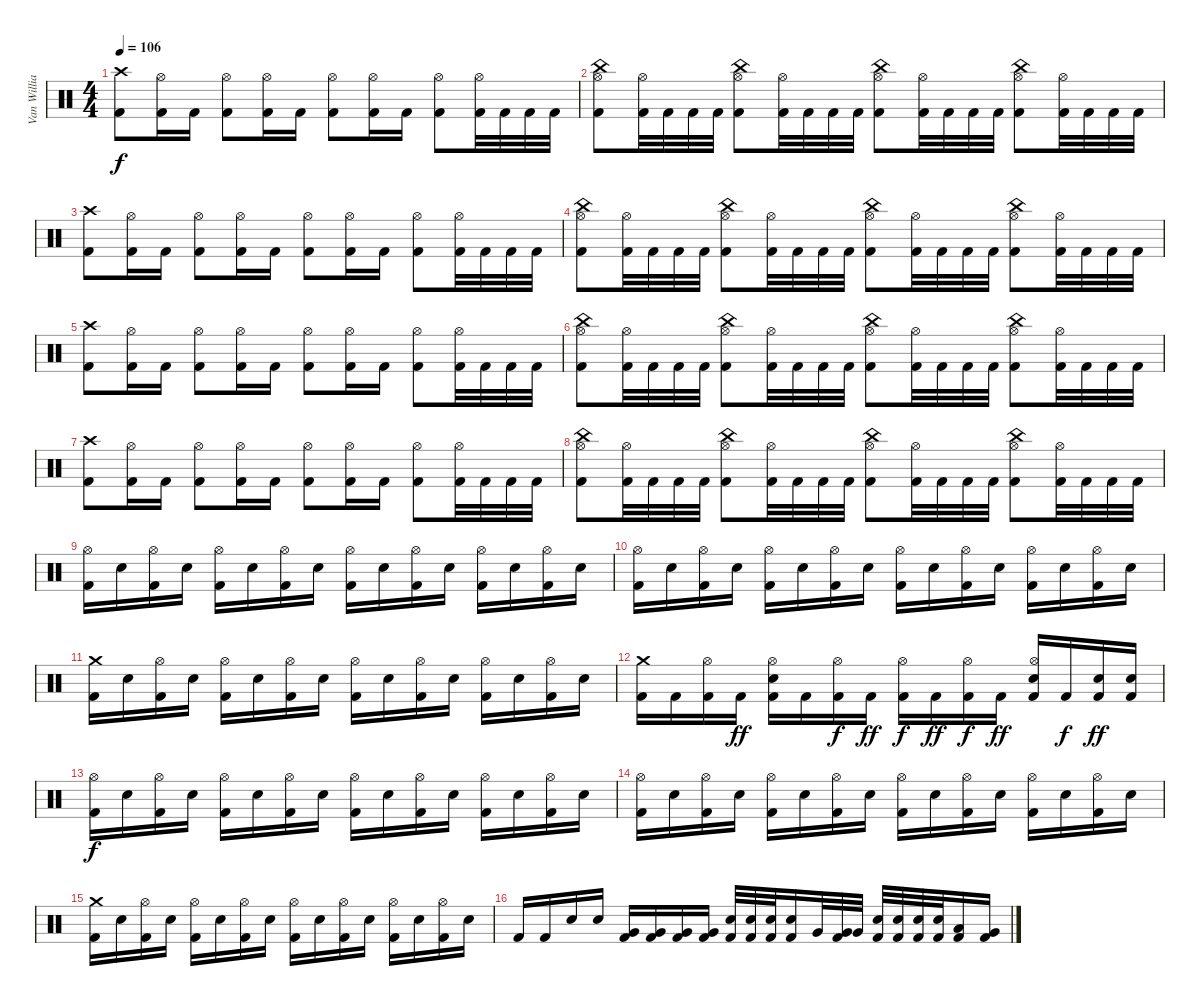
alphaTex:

\track ("Van Williams" "Van Willia") {instrument percussion}
\staff {score}
\articulation defaults
\ts (4 4)
\tempo 106
\clef neutral
\ks c
("Kick (hit) 2" "Crash high (hit)").8{dy f} ("Kick (hit) 2" "Hi-Hat (open)").16 "Kick (hit) 2".16 ("Kick (hit) 2" "Hi-Hat (open)").8 ("Kick (hit) 2" "Hi-Hat (open)").16 "Kick (hit) 2".16 ("Kick (hit) 2" "Hi-Hat (open)").8 ("Kick (hit) 2" "Hi-Hat (open)").16 "Kick (hit) 2".16 ("Kick (hit) 2" "Hi-Hat (open)").8 ("Kick (hit) 2" "Hi-Hat (open)").32 "Kick (hit) 2".32 "Kick (hit) 2".32 "Kick (hit) 2".32 |
("Kick (hit) 2" "Hi-Hat (open)" "China (hit)").8 ("Kick (hit) 2" "Hi-Hat (open)").32 "Kick (hit) 2".32 "Kick (hit) 2".32 "Kick (hit) 2".32 ("Kick (hit) 2" "Hi-Hat (open)" "China (hit)").8 ("Kick (hit) 2" "Hi-Hat (open)").32 "Kick (hit) 2".32 "Kick (hit) 2".32 "Kick (hit) 2".32 ("Kick (hit) 2" "Hi-Hat (open)" "China (hit)").8 ("Kick (hit) 2" "Hi-Hat (open)").32 "Kick (hit) 2".32 "Kick (hit) 2".32 "Kick (hit) 2".32 ("Kick (hit) 2" "Hi-Hat (open)" "China (hit)").8 ("Kick (hit) 2" "Hi-Hat (open)").32 "Kick (hit) 2".32 "Kick (hit) 2".32 "Kick (hit) 2".32 |
("Kick (hit) 2" "Crash high (hit)").8 ("Kick (hit) 2" "Hi-Hat (open)").16 "Kick (hit) 2".16 ("Kick (hit) 2" "Hi-Hat (open)").8 ("Kick (hit) 2" "Hi-Hat (open)").16 "Kick (hit) 2".16 ("Kick (hit) 2" "Hi-Hat (open)").8 ("Kick (hit) 2" "Hi-Hat (open)").16 "Kick (hit) 2".16 ("Kick (hit) 2" "Hi-Hat (open)").8 ("Kick (hit) 2" "Hi-Hat (open)").32 "Kick (hit) 2".32 "Kick (hit) 2".32 "Kick (hit) 2".32 |
("Kick (hit) 2" "Hi-Hat (open)" "China (hit)").8 ("Kick (hit) 2" "Hi-Hat (open)").32 "Kick (hit) 2".32 "Kick (hit) 2".32 "Kick (hit) 2".32 ("Kick (hit) 2" "Hi-Hat (open)" "China (hit)").8 ("Kick (hit) 2" "Hi-Hat (open)").32 "Kick (hit) 2".32 "Kick (hit) 2".32 "Kick (hit) 2".32 ("Kick (hit) 2" "Hi-Hat (open)" "China (hit)").8 ("Kick (hit) 2" "Hi-Hat (open)").32 "Kick (hit) 2".32 "Kick (hit) 2".32 "Kick (hit) 2".32 ("Kick (hit) 2" "Hi-Hat (open)" "China (hit)").8 ("Kick (hit) 2" "Hi-Hat (open)").32 "Kick (hit) 2".32 "Kick (hit) 2".32 "Kick (hit) 2".32 |
("Kick (hit) 2" "Crash high (hit)").8 ("Kick (hit) 2" "Hi-Hat (open)").16 "Kick (hit) 2".16 ("Kick (hit) 2" "Hi-Hat (open)").8 ("Kick (hit) 2" "Hi-Hat (open)").16 "Kick (hit) 2".16 ("Kick (hit) 2" "Hi-Hat (open)").8 ("Kick (hit) 2" "Hi-Hat (open)").16 "Kick (hit) 2".16 ("Kick (hit) 2" "Hi-Hat (open)").8 ("Kick (hit) 2" "Hi-Hat (open)").32 "Kick (hit) 2".32 "Kick (hit) 2".32 "Kick (hit) 2".32 |
("Kick (hit) 2" "Hi-Hat (open)" "China (hit)").8 ("Kick (hit) 2" "Hi-Hat (open)").32 "Kick (hit) 2".32 "Kick (hit) 2".32 "Kick (hit) 2".32 ("Kick (hit) 2" "Hi-Hat (open)" "China (hit)").8 ("Kick (hit) 2" "Hi-Hat (open)").32 "Kick (hit) 2".32 "Kick (hit) 2".32 "Kick (hit) 2".32 ("Kick (hit) 2" "Hi-Hat (open)" "China (hit)").8 ("Kick (hit) 2" "Hi-Hat (open)").32 "Kick (hit) 2".32 "Kick (hit) 2".32 "Kick (hit) 2".32 ("Kick (hit) 2" "Hi-Hat (open)" "China (hit)").8 ("Kick (hit) 2" "Hi-Hat (open)").32 "Kick (hit) 2".32 "Kick (hit) 2".32 "Kick (hit) 2".32 |
("Kick (hit) 2" "Crash high (hit)").8 ("Kick (hit) 2" "Hi-Hat (open)").16 "Kick (hit) 2".16 ("Kick (hit) 2" "Hi-Hat (open)").8 ("Kick (hit) 2" "Hi-Hat (open)").16 "Kick (hit) 2".16 ("Kick (hit) 2" "Hi-Hat (open)").8 ("Kick (hit) 2" "Hi-Hat (open)").16 "Kick (hit) 2".16 ("Kick (hit) 2" "Hi-Hat (open)").8 ("Kick (hit) 2" "Hi-Hat (open)").32 "Kick (hit) 2".32 "Kick (hit) 2".32 "Kick (hit) 2".32 |
("Kick (hit) 2" "Hi-Hat (open)" "China (hit)").8 ("Kick (hit) 2" "Hi-Hat (open)").32 "Kick (hit) 2".32 "Kick (hit) 2".32 "Kick (hit) 2".32 ("Kick (hit) 2" "Hi-Hat (open)" "China (hit)").8 ("Kick (hit) 2" "Hi-Hat (open)").32 "Kick (hit) 2".32 "Kick (hit) 2".32 "Kick (hit) 2".32 ("Kick (hit) 2" "Hi-Hat (open)" "China (hit)").8 ("Kick (hit) 2" "Hi-Hat (open)").32 "Kick (hit) 2".32 "Kick (hit) 2".32 "Kick (hit) 2".32 ("Kick (hit) 2" "Hi-Hat (open)" "China (hit)").8 ("Kick (hit) 2" "Hi-Hat (open)").32 "Kick (hit) 2".32 "Kick (hit) 2".32 "Kick (hit) 2".32 |
("Kick (hit) 2" "Hi-Hat (open)").16 "Electric Snare (hit)".16 ("Kick (hit) 2" "Hi-Hat (open)").16 "Electric Snare (hit)".16 ("Kick (hit) 2" "Hi-Hat (open)").16 "Electric Snare (hit)".16 ("Kick (hit) 2" "Hi-Hat (open)").16 "Electric Snare (hit)".16 ("Kick (hit) 2" "Hi-Hat (open)").16 "Electric Snare (hit)".16 ("Kick (hit) 2" "Hi-Hat (open)").16 "Electric Snare (hit)".16 ("Kick (hit) 2" "Hi-Hat (open)").16 "Electric Snare (hit)".16 ("Kick (hit) 2" "Hi-Hat (open)").16 "Electric Snare (hit)".16 |
("Kick (hit) 2" "Hi-Hat (open)").16 "Electric Snare (hit)".16 ("Kick (hit) 2" "Hi-Hat (open)").16 "Electric Snare (hit)".16 ("Kick (hit) 2" "Hi-Hat (open)").16 "Electric Snare (hit)".16 ("Kick (hit) 2" "Hi-Hat (open)").16 "Electric Snare (hit)".16 ("Kick (hit) 2" "Hi-Hat (open)").16 "Electric Snare (hit)".16 ("Kick (hit) 2" "Hi-Hat (open)").16 "Electric Snare (hit)".16 ("Kick (hit) 2" "Hi-Hat (open)").16 "Electric Snare (hit)".16 ("Kick (hit) 2" "Hi-Hat (open)").16 "Electric Snare (hit)".16 |
("Crash medium (hit)" "Kick (hit) 2").16 "Electric Snare (hit)".16 ("Kick (hit) 2" "Hi-Hat (open)").16 "Electric Snare (hit)".16 ("Kick (hit) 2" "Hi-Hat (open)").16 "Electric Snare (hit)".16 ("Kick (hit) 2" "Hi-Hat (open)").16 "Electric Snare (hit)".16 ("Kick (hit) 2" "Hi-Hat (open)").16 "Electric Snare (hit)".16 ("Kick (hit) 2" "Hi-Hat (open)").16 "Electric Snare (hit)".16 ("Kick (hit) 2" "Hi-Hat (open)").16 "Electric Snare (hit)".16 ("Kick (hit) 2" "Hi-Hat (open)").16 "Electric Snare (hit)".16 |
("Crash medium (hit)" "Kick (hit) 2").16 "Kick (hit) 2".16 ("Kick (hit) 2" "Hi-Hat (open)").16 "Kick (hit) 2".16{dy ff} ("Kick (hit) 2" "Hi-Hat (open)" "Electric Snare (hit)").16 "Kick (hit) 2".16 ("Kick (hit) 2" "Hi-Hat (open)").16{dy f} "Kick (hit) 2".16{dy ff} ("Kick (hit) 2" "Hi-Hat (open)").16{dy f} "Kick (hit) 2".16{dy ff} ("Kick (hit) 2" "Hi-Hat (open)").16{dy f} "Kick (hit) 2".16{dy ff} ("Kick (hit) 2" "Hi-Hat (open)" "Electric Snare (hit)").16 "Kick (hit) 2".16{dy f} ("Kick (hit) 2" "Electric Snare (hit)").16{dy ff} ("Kick (hit) 2" "Electric Snare (hit)").16 |
("Kick (hit) 2" "Hi-Hat (open)").16{dy f} "Electric Snare (hit)".16 ("Kick (hit) 2" "Hi-Hat (open)").16 "Electric Snare (hit)".16 ("Kick (hit) 2" "Hi-Hat (open)").16 "Electric Snare (hit)".16 ("Kick (hit) 2" "Hi-Hat (open)").16 "Electric Snare (hit)".16 ("Kick (hit) 2" "Hi-Hat (open)").16 "Electric Snare (hit)".16 ("Kick (hit) 2" "Hi-Hat (open)").16 "Electric Snare (hit)".16 ("Kick (hit) 2" "Hi-Hat (open)").16 "Electric Snare (hit)".16 ("Kick (hit) 2" "Hi-Hat (open)").16 "Electric Snare (hit)".16 |
("Kick (hit) 2" "Hi-Hat (open)").16 "Electric Snare (hit)".16 ("Kick (hit) 2" "Hi-Hat (open)").16 "Electric Snare (hit)".16 ("Kick (hit) 2" "Hi-Hat (open)").16 "Electric Snare (hit)".16 ("Kick (hit) 2" "Hi-Hat (open)").16 "Electric Snare (hit)".16 ("Kick (hit) 2" "Hi-Hat (open)").16 "Electric Snare (hit)".16 ("Kick (hit) 2" "Hi-Hat (open)").16 "Electric Snare (hit)".16 ("Kick (hit) 2" "Hi-Hat (open)").16 "Electric Snare (hit)".16 ("Kick (hit) 2" "Hi-Hat (open)").16 "Electric Snare (hit)".16 |
("Crash medium (hit)" "Kick (hit) 2").16 "Electric Snare (hit)".16 ("Kick (hit) 2" "Hi-Hat (open)").16 "Electric Snare (hit)".16 ("Kick (hit) 2" "Hi-Hat (open)").16 "Electric Snare (hit)".16 ("Kick (hit) 2" "Hi-Hat (open)").16 "Electric Snare (hit)".16 ("Kick (hit) 2" "Hi-Hat (open)").16 "Electric Snare (hit)".16 ("Kick (hit) 2" "Hi-Hat (open)").16 "Electric Snare (hit)".16 ("Kick (hit) 2" "Hi-Hat (open)").16 "Electric Snare (hit)".16 ("Kick (hit) 2" "Hi-Hat (open)").16 "Electric Snare (hit)".16 |
"Kick (hit) 2".16 "Kick (hit) 2".16 "Electric Snare (hit)".16 "Electric Snare (hit)".16 ("Kick (hit) 2" "Very Low Tom (hit)").16 ("Kick (hit) 2" "Very Low Tom (hit)").16 ("Kick (hit) 2" "Very Low Tom (hit)").16 ("Kick (hit) 2" "Very Low Tom (hit)").16 ("Kick (hit) 2" "Electric Snare (hit)").32 ("Kick (hit) 2" "Electric Snare (hit)").32 ("Kick (hit) 2" "Electric Snare (hit)").32 ("Kick (hit) 2" "Electric Snare (hit)").16 "Very Low Tom (hit)".32 ("Kick (hit) 2" "Very Low Tom (hit)").32 "Very Low Tom (hit)".32 ("Kick (hit) 2" "Electric Snare (hit)").32 ("Kick (hit) 2" "Electric Snare (hit)").32 ("Kick (hit) 2" "Electric Snare (hit)").32 ("Kick (hit) 2" "Electric Snare (hit)").32 ("Kick (hit) 2" "Low Tom (hit)").16 ("Kick (hit) 2" "Very Low Tom (hit)").16
